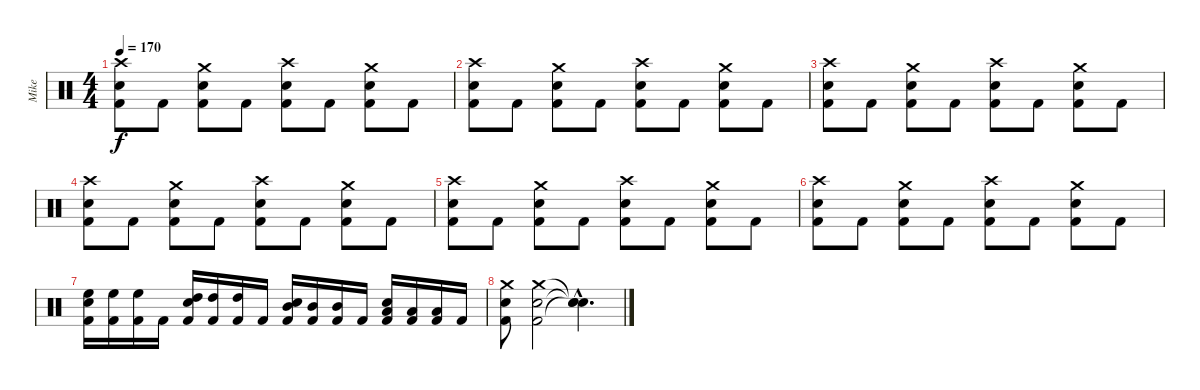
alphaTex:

\track ("Mike" "Mike") {instrument percussion}
\staff {score}
\articulation defaults
\ts (4 4)
\tempo 170
\clef neutral
\ks c
("Crash high (hit)" "Snare (hit) 2" "Kick (hit) 2").8{dy f} "Kick (hit) 2".8 ("Crash medium (hit)" "Snare (hit) 2" "Kick (hit) 2").8 "Kick (hit) 2".8 ("Crash high (hit)" "Snare (hit) 2" "Kick (hit) 2").8 "Kick (hit) 2".8 ("Crash medium (hit)" "Snare (hit) 2" "Kick (hit) 2").8 "Kick (hit) 2".8 |
("Crash high (hit)" "Snare (hit) 2" "Kick (hit) 2").8 "Kick (hit) 2".8 ("Crash medium (hit)" "Snare (hit) 2" "Kick (hit) 2").8 "Kick (hit) 2".8 ("Crash high (hit)" "Snare (hit) 2" "Kick (hit) 2").8 "Kick (hit) 2".8 ("Crash medium (hit)" "Snare (hit) 2" "Kick (hit) 2").8 "Kick (hit) 2".8 |
("Crash high (hit)" "Snare (hit) 2" "Kick (hit) 2").8 "Kick (hit) 2".8 ("Crash medium (hit)" "Snare (hit) 2" "Kick (hit) 2").8 "Kick (hit) 2".8 ("Crash high (hit)" "Snare (hit) 2" "Kick (hit) 2").8 "Kick (hit) 2".8 ("Crash medium (hit)" "Snare (hit) 2" "Kick (hit) 2").8 "Kick (hit) 2".8 |
("Crash high (hit)" "Snare (hit) 2" "Kick (hit) 2").8 "Kick (hit) 2".8 ("Crash medium (hit)" "Snare (hit) 2" "Kick (hit) 2").8 "Kick (hit) 2".8 ("Crash high (hit)" "Snare (hit) 2" "Kick (hit) 2").8 "Kick (hit) 2".8 ("Crash medium (hit)" "Snare (hit) 2" "Kick (hit) 2").8 "Kick (hit) 2".8 |
("Crash high (hit)" "Snare (hit) 2" "Kick (hit) 2").8 "Kick (hit) 2".8 ("Crash medium (hit)" "Snare (hit) 2" "Kick (hit) 2").8 "Kick (hit) 2".8 ("Crash high (hit)" "Snare (hit) 2" "Kick (hit) 2").8 "Kick (hit) 2".8 ("Crash medium (hit)" "Snare (hit) 2" "Kick (hit) 2").8 "Kick (hit) 2".8 |
("Crash high (hit)" "Snare (hit) 2" "Kick (hit) 2").8 "Kick (hit) 2".8 ("Crash medium (hit)" "Snare (hit) 2" "Kick (hit) 2").8 "Kick (hit) 2".8 ("Crash high (hit)" "Snare (hit) 2" "Kick (hit) 2").8 "Kick (hit) 2".8 ("Crash medium (hit)" "Snare (hit) 2" "Kick (hit) 2").8 "Kick (hit) 2".8 |
("High Floor Tom (hit)" "Snare (hit) 2" "Kick (hit) 2").16 ("High Floor Tom (hit)" "Kick (hit) 2").16 ("High Floor Tom (hit)" "Kick (hit) 2").16 "Kick (hit) 2".16 ("High Tom (hit)" "Snare (hit) 2" "Kick (hit) 2").16 ("High Tom (hit)" "Kick (hit) 2").16 ("High Tom (hit)" "Kick (hit) 2").16 "Kick (hit) 2".16 ("Mid Tom (hit)" "Snare (hit) 2" "Kick (hit) 2").16 ("Mid Tom (hit)" "Kick (hit) 2").16 ("Mid Tom (hit)" "Kick (hit) 2").16 "Kick (hit) 2".16 ("Low Tom (hit)" "Snare (hit) 2" "Kick (hit) 2").16 ("Low Tom (hit)" "Kick (hit) 2").16 ("Low Tom (hit)" "Kick (hit) 2").16 "Kick (hit) 2".16 |
("Snare (hit) 2" "Kick (hit) 2" "Crash medium (hit)").8 ("Snare (hit) 2" "Kick (hit) 2" "Crash medium (hit)").2 ("Snare (hit)"{hac t} "Snare (hit)"{hac t} "Snare (hit)"{hac t}).4{d}
